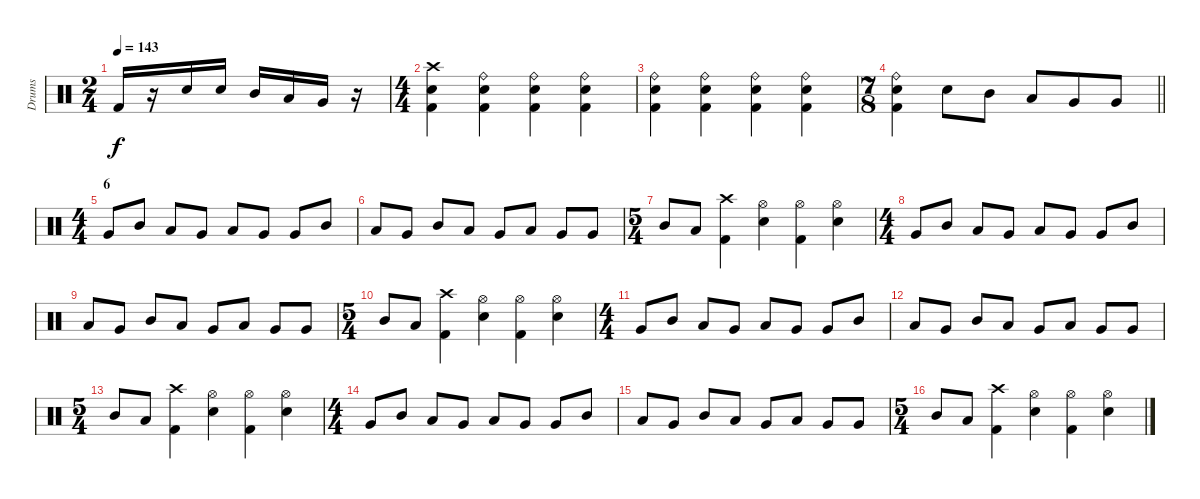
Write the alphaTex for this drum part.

\track ("Drums" "Drums") {instrument percussion}
\staff {score}
\articulation defaults
\ts (2 4)
\tempo 143
\clef neutral
\ks c "Kick (hit) 2".16{dy f}
r.16 "Electric Snare (hit)".16 "Electric Snare (hit)".16 "Mid Tom (hit)".16 "Low Tom (hit)".16 "Very Low Tom (hit)".16 r.16 |
\ts (4 4)
("Crash high (hit)" "Kick (hit) 2" "Electric Snare (hit)").4 ("Ride (bell)" "Kick (hit) 2" "Electric Snare (hit)").4 ("Ride (bell)" "Kick (hit) 2" "Electric Snare (hit)").4 ("Ride (bell)" "Kick (hit) 2" "Electric Snare (hit)").4 |
("Ride (bell)" "Kick (hit) 2" "Electric Snare (hit)").4 ("Ride (bell)" "Kick (hit) 2" "Electric Snare (hit)").4 ("Ride (bell)" "Kick (hit) 2" "Electric Snare (hit)").4 ("Ride (bell)" "Kick (hit) 2" "Electric Snare (hit)").4 |
\ts (7 8)
\barLineRight lightlight
("Ride (bell)" "Kick (hit) 2" "Electric Snare (hit)").4 "Electric Snare (hit)".8 "Mid Tom (hit)".8 "Low Tom (hit)".8 "Very Low Tom (hit)".8 "Very Low Tom (hit)".8 |
\ts (4 4)
\section ("" "6")
"Very Low Tom (hit)".8 "Mid Tom (hit)".8 "Low Tom (hit)".8 "Very Low Tom (hit)".8 "Low Tom (hit)".8 "Very Low Tom (hit)".8 "Very Low Tom (hit)".8 "Mid Tom (hit)".8 |
"Low Tom (hit)".8 "Very Low Tom (hit)".8 "Mid Tom (hit)".8 "Low Tom (hit)".8 "Very Low Tom (hit)".8 "Low Tom (hit)".8 "Very Low Tom (hit)".8 "Very Low Tom (hit)".8 |
\ts (5 4)
"Mid Tom (hit)".8 "Low Tom (hit)".8 ("Crash high (hit)" "Kick (hit) 2").4 ("Hi-Hat (open)" "Electric Snare (hit)").4 ("Hi-Hat (open)" "Kick (hit) 2").4 ("Hi-Hat (open)" "Electric Snare (hit)").4 |
\ts (4 4)
"Very Low Tom (hit)".8 "Mid Tom (hit)".8 "Low Tom (hit)".8 "Very Low Tom (hit)".8 "Low Tom (hit)".8 "Very Low Tom (hit)".8 "Very Low Tom (hit)".8 "Mid Tom (hit)".8 |
"Low Tom (hit)".8 "Very Low Tom (hit)".8 "Mid Tom (hit)".8 "Low Tom (hit)".8 "Very Low Tom (hit)".8 "Low Tom (hit)".8 "Very Low Tom (hit)".8 "Very Low Tom (hit)".8 |
\ts (5 4)
"Mid Tom (hit)".8 "Low Tom (hit)".8 ("Crash high (hit)" "Kick (hit) 2").4 ("Hi-Hat (open)" "Electric Snare (hit)").4 ("Hi-Hat (open)" "Kick (hit) 2").4 ("Hi-Hat (open)" "Electric Snare (hit)").4 |
\ts (4 4)
"Very Low Tom (hit)".8{volume 10} "Mid Tom (hit)".8 "Low Tom (hit)".8 "Very Low Tom (hit)".8 "Low Tom (hit)".8 "Very Low Tom (hit)".8 "Very Low Tom (hit)".8 "Mid Tom (hit)".8 |
"Low Tom (hit)".8 "Very Low Tom (hit)".8 "Mid Tom (hit)".8 "Low Tom (hit)".8 "Very Low Tom (hit)".8 "Low Tom (hit)".8 "Very Low Tom (hit)".8 "Very Low Tom (hit)".8 |
\ts (5 4)
"Mid Tom (hit)".8 "Low Tom (hit)".8 ("Crash high (hit)" "Kick (hit) 2").4 ("Hi-Hat (open)" "Electric Snare (hit)").4 ("Hi-Hat (open)" "Kick (hit) 2").4 ("Hi-Hat (open)" "Electric Snare (hit)").4 |
\ts (4 4)
"Very Low Tom (hit)".8 "Mid Tom (hit)".8 "Low Tom (hit)".8 "Very Low Tom (hit)".8 "Low Tom (hit)".8 "Very Low Tom (hit)".8 "Very Low Tom (hit)".8 "Mid Tom (hit)".8 |
"Low Tom (hit)".8{volume 7} "Very Low Tom (hit)".8 "Mid Tom (hit)".8 "Low Tom (hit)".8 "Very Low Tom (hit)".8 "Low Tom (hit)".8 "Very Low Tom (hit)".8 "Very Low Tom (hit)".8 |
\ts (5 4)
"Mid Tom (hit)".8 "Low Tom (hit)".8 ("Crash high (hit)" "Kick (hit) 2").4 ("Hi-Hat (open)" "Electric Snare (hit)").4 ("Hi-Hat (open)" "Kick (hit) 2").4 ("Hi-Hat (open)" "Electric Snare (hit)").4
